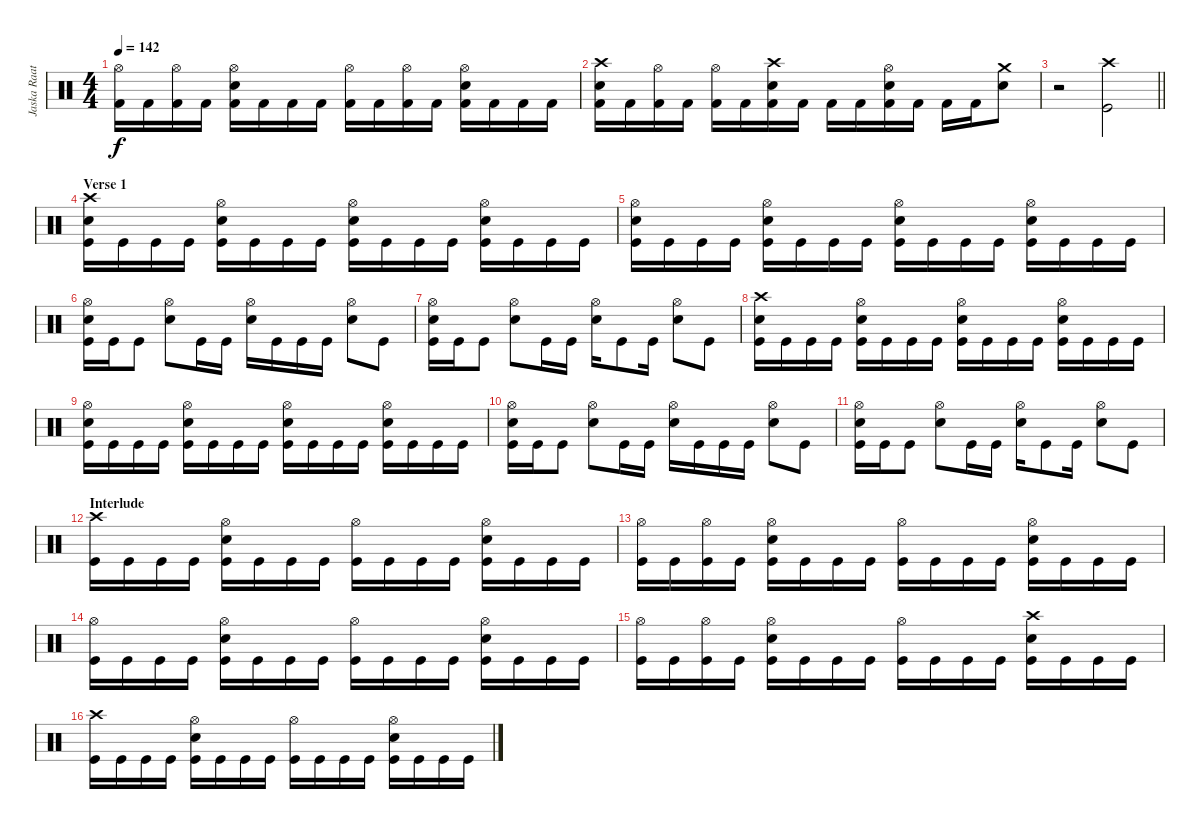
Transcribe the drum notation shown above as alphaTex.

\track ("Jaska Raatikainen" "Jaska Raat") {instrument percussion}
\staff {score}
\articulation defaults
\ts (4 4)
\tempo 142
\clef neutral
\ks c
("Hi-Hat (open)" "Kick (hit) 2").16{dy f} "Kick (hit) 2".16 ("Hi-Hat (open)" "Kick (hit) 2").16 "Kick (hit) 2".16 ("Hi-Hat (open)" "Electric Snare (hit)" "Kick (hit) 2").16 "Kick (hit) 2".16 "Kick (hit) 2".16 "Kick (hit) 2".16 ("Hi-Hat (open)" "Kick (hit) 2").16 "Kick (hit) 2".16 ("Hi-Hat (open)" "Kick (hit) 2").16 "Kick (hit) 2".16 ("Hi-Hat (open)" "Electric Snare (hit)" "Kick (hit) 2").16 "Kick (hit) 2".16 "Kick (hit) 2".16 "Kick (hit) 2".16 |
("Crash high (hit)" "Electric Snare (hit)" "Kick (hit) 2").16 "Kick (hit) 2".16 ("Hi-Hat (open)" "Kick (hit) 2").16 "Kick (hit) 2".16 ("Hi-Hat (open)" "Kick (hit) 2").16 "Kick (hit) 2".16 ("Crash high (hit)" "Electric Snare (hit)" "Kick (hit) 2").16 "Kick (hit) 2".16 "Kick (hit) 2".16 "Kick (hit) 2".16 ("Hi-Hat (open)" "Electric Snare (hit)" "Kick (hit) 2").16 "Kick (hit) 2".16 "Kick (hit) 2".16 "Kick (hit) 2".16 ("Crash medium (hit)" "Electric Snare (hit)").8 |
\barLineRight lightlight
r.2 ("Crash high (hit)" "Kick (hit)").2 |
\section ("" "Verse 1")
("Crash high (hit)" "Snare (hit) 2" "Kick (hit)").16 "Kick (hit)".16 "Kick (hit)".16 "Kick (hit)".16 ("Hi-Hat (open)" "Snare (hit) 2" "Kick (hit)").16 "Kick (hit)".16 "Kick (hit)".16 "Kick (hit)".16 ("Hi-Hat (open)" "Snare (hit) 2" "Kick (hit)").16 "Kick (hit)".16 "Kick (hit)".16 "Kick (hit)".16 ("Hi-Hat (open)" "Snare (hit) 2" "Kick (hit)").16 "Kick (hit)".16 "Kick (hit)".16 "Kick (hit)".16 |
("Hi-Hat (open)" "Snare (hit) 2" "Kick (hit)").16 "Kick (hit)".16 "Kick (hit)".16 "Kick (hit)".16 ("Hi-Hat (open)" "Snare (hit) 2" "Kick (hit)").16 "Kick (hit)".16 "Kick (hit)".16 "Kick (hit)".16 ("Hi-Hat (open)" "Snare (hit) 2" "Kick (hit)").16 "Kick (hit)".16 "Kick (hit)".16 "Kick (hit)".16 ("Hi-Hat (open)" "Snare (hit) 2" "Kick (hit)").16 "Kick (hit)".16 "Kick (hit)".16 "Kick (hit)".16 |
("Hi-Hat (open)" "Snare (hit) 2" "Kick (hit)").16 "Kick (hit)".16 "Kick (hit)".8 ("Hi-Hat (open)" "Snare (hit) 2").8 "Kick (hit)".16 "Kick (hit)".16 ("Hi-Hat (open)" "Snare (hit) 2").16 "Kick (hit)".16 "Kick (hit)".16 "Kick (hit)".16 ("Hi-Hat (open)" "Snare (hit) 2").8 "Kick (hit)".8 |
("Hi-Hat (open)" "Snare (hit) 2" "Kick (hit)").16 "Kick (hit)".16 "Kick (hit)".8 ("Hi-Hat (open)" "Snare (hit) 2").8 "Kick (hit)".16 "Kick (hit)".16 ("Hi-Hat (open)" "Snare (hit) 2").16 "Kick (hit)".8 "Kick (hit)".16 ("Hi-Hat (open)" "Snare (hit) 2").8 "Kick (hit)".8 |
("Crash high (hit)" "Snare (hit) 2" "Kick (hit)").16 "Kick (hit)".16 "Kick (hit)".16 "Kick (hit)".16 ("Hi-Hat (open)" "Snare (hit) 2" "Kick (hit)").16 "Kick (hit)".16 "Kick (hit)".16 "Kick (hit)".16 ("Hi-Hat (open)" "Snare (hit) 2" "Kick (hit)").16 "Kick (hit)".16 "Kick (hit)".16 "Kick (hit)".16 ("Hi-Hat (open)" "Snare (hit) 2" "Kick (hit)").16 "Kick (hit)".16 "Kick (hit)".16 "Kick (hit)".16 |
("Hi-Hat (open)" "Snare (hit) 2" "Kick (hit)").16 "Kick (hit)".16 "Kick (hit)".16 "Kick (hit)".16 ("Hi-Hat (open)" "Snare (hit) 2" "Kick (hit)").16 "Kick (hit)".16 "Kick (hit)".16 "Kick (hit)".16 ("Hi-Hat (open)" "Snare (hit) 2" "Kick (hit)").16 "Kick (hit)".16 "Kick (hit)".16 "Kick (hit)".16 ("Hi-Hat (open)" "Snare (hit) 2" "Kick (hit)").16 "Kick (hit)".16 "Kick (hit)".16 "Kick (hit)".16 |
("Hi-Hat (open)" "Snare (hit) 2" "Kick (hit)").16 "Kick (hit)".16 "Kick (hit)".8 ("Hi-Hat (open)" "Snare (hit) 2").8 "Kick (hit)".16 "Kick (hit)".16 ("Hi-Hat (open)" "Snare (hit) 2").16 "Kick (hit)".16 "Kick (hit)".16 "Kick (hit)".16 ("Hi-Hat (open)" "Snare (hit) 2").8 "Kick (hit)".8 |
("Hi-Hat (open)" "Snare (hit) 2" "Kick (hit)").16 "Kick (hit)".16 "Kick (hit)".8 ("Hi-Hat (open)" "Snare (hit) 2").8 "Kick (hit)".16 "Kick (hit)".16 ("Hi-Hat (open)" "Snare (hit) 2").16 "Kick (hit)".8 "Kick (hit)".16 ("Hi-Hat (open)" "Snare (hit) 2").8 "Kick (hit)".8 |
\section ("" "Interlude")
("Crash high (hit)" "Kick (hit)").16 "Kick (hit)".16 "Kick (hit)".16 "Kick (hit)".16 ("Hi-Hat (open)" "Snare (hit) 2" "Kick (hit)").16 "Kick (hit)".16 "Kick (hit)".16 "Kick (hit)".16 ("Hi-Hat (open)" "Kick (hit)").16 "Kick (hit)".16 "Kick (hit)".16 "Kick (hit)".16 ("Hi-Hat (open)" "Snare (hit) 2" "Kick (hit)").16 "Kick (hit)".16 "Kick (hit)".16 "Kick (hit)".16 |
("Hi-Hat (open)" "Kick (hit)").16 "Kick (hit)".16 ("Hi-Hat (open)" "Kick (hit)").16 "Kick (hit)".16 ("Hi-Hat (open)" "Snare (hit) 2" "Kick (hit)").16 "Kick (hit)".16 "Kick (hit)".16 "Kick (hit)".16 ("Hi-Hat (open)" "Kick (hit)").16 "Kick (hit)".16 "Kick (hit)".16 "Kick (hit)".16 ("Hi-Hat (open)" "Snare (hit) 2" "Kick (hit)").16 "Kick (hit)".16 "Kick (hit)".16 "Kick (hit)".16 |
("Hi-Hat (open)" "Kick (hit)").16 "Kick (hit)".16 "Kick (hit)".16 "Kick (hit)".16 ("Hi-Hat (open)" "Snare (hit) 2" "Kick (hit)").16 "Kick (hit)".16 "Kick (hit)".16 "Kick (hit)".16 ("Hi-Hat (open)" "Kick (hit)").16 "Kick (hit)".16 "Kick (hit)".16 "Kick (hit)".16 ("Hi-Hat (open)" "Snare (hit) 2" "Kick (hit)").16 "Kick (hit)".16 "Kick (hit)".16 "Kick (hit)".16 |
("Hi-Hat (open)" "Kick (hit)").16 "Kick (hit)".16 ("Hi-Hat (open)" "Kick (hit)").16 "Kick (hit)".16 ("Hi-Hat (open)" "Snare (hit) 2" "Kick (hit)").16 "Kick (hit)".16 "Kick (hit)".16 "Kick (hit)".16 ("Hi-Hat (open)" "Kick (hit)").16 "Kick (hit)".16 "Kick (hit)".16 "Kick (hit)".16 ("Crash high (hit)" "Snare (hit) 2" "Kick (hit)").16 "Kick (hit)".16 "Kick (hit)".16 "Kick (hit)".16 |
("Crash high (hit)" "Kick (hit)").16 "Kick (hit)".16 "Kick (hit)".16 "Kick (hit)".16 ("Hi-Hat (open)" "Snare (hit) 2" "Kick (hit)").16 "Kick (hit)".16 "Kick (hit)".16 "Kick (hit)".16 ("Hi-Hat (open)" "Kick (hit)").16 "Kick (hit)".16 "Kick (hit)".16 "Kick (hit)".16 ("Hi-Hat (open)" "Snare (hit) 2" "Kick (hit)").16 "Kick (hit)".16 "Kick (hit)".16 "Kick (hit)".16
